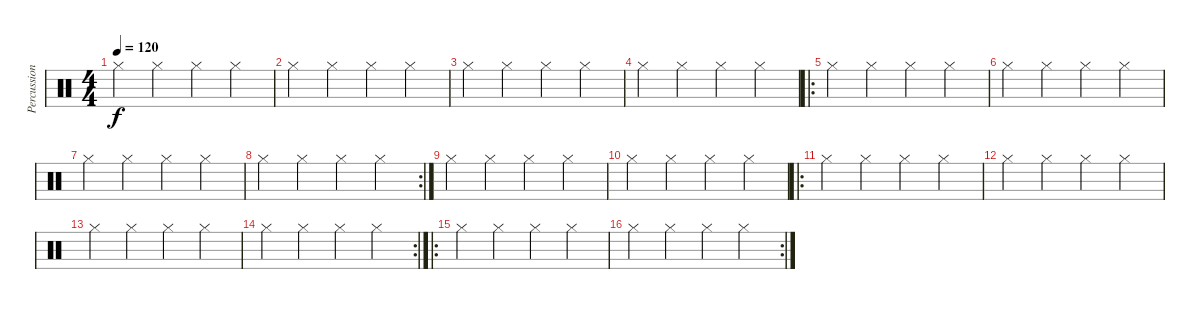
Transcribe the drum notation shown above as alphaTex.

\track ("Percussioni" "Percussion") {instrument percussion}
\staff {score}
\articulation defaults
\ts (4 4)
\tempo 120
\clef neutral
\ks c "Hi-Hat (closed)".4{dy f} "Hi-Hat (closed)".4 "Hi-Hat (closed)".4 "Hi-Hat (closed)".4
|
"Hi-Hat (closed)".4 "Hi-Hat (closed)".4 "Hi-Hat (closed)".4 "Hi-Hat (closed)".4 |
"Hi-Hat (closed)".4 "Hi-Hat (closed)".4 "Hi-Hat (closed)".4 "Hi-Hat (closed)".4 |
"Hi-Hat (closed)".4 "Hi-Hat (closed)".4 "Hi-Hat (closed)".4 "Hi-Hat (closed)".4 |
\ro "Hi-Hat (closed)".4 "Hi-Hat (closed)".4 "Hi-Hat (closed)".4 "Hi-Hat (closed)".4
|
"Hi-Hat (closed)".4 "Hi-Hat (closed)".4 "Hi-Hat (closed)".4 "Hi-Hat (closed)".4 |
"Hi-Hat (closed)".4 "Hi-Hat (closed)".4 "Hi-Hat (closed)".4 "Hi-Hat (closed)".4 |
\rc 2 "Hi-Hat (closed)".4 "Hi-Hat (closed)".4 "Hi-Hat (closed)".4 "Hi-Hat (closed)".4
|
"Hi-Hat (closed)".4 "Hi-Hat (closed)".4 "Hi-Hat (closed)".4 "Hi-Hat (closed)".4 |
"Hi-Hat (closed)".4 "Hi-Hat (closed)".4 "Hi-Hat (closed)".4 "Hi-Hat (closed)".4 |
\ro "Hi-Hat (closed)".4 "Hi-Hat (closed)".4 "Hi-Hat (closed)".4 "Hi-Hat (closed)".4
|
"Hi-Hat (closed)".4 "Hi-Hat (closed)".4 "Hi-Hat (closed)".4 "Hi-Hat (closed)".4 |
"Hi-Hat (closed)".4 "Hi-Hat (closed)".4 "Hi-Hat (closed)".4 "Hi-Hat (closed)".4 |
\rc 2 "Hi-Hat (closed)".4 "Hi-Hat (closed)".4 "Hi-Hat (closed)".4 "Hi-Hat (closed)".4
|
\ro "Hi-Hat (closed)".4 "Hi-Hat (closed)".4 "Hi-Hat (closed)".4 "Hi-Hat (closed)".4
|
\rc 2 "Hi-Hat (closed)".4 "Hi-Hat (closed)".4 "Hi-Hat (closed)".4 "Hi-Hat (closed)".4
